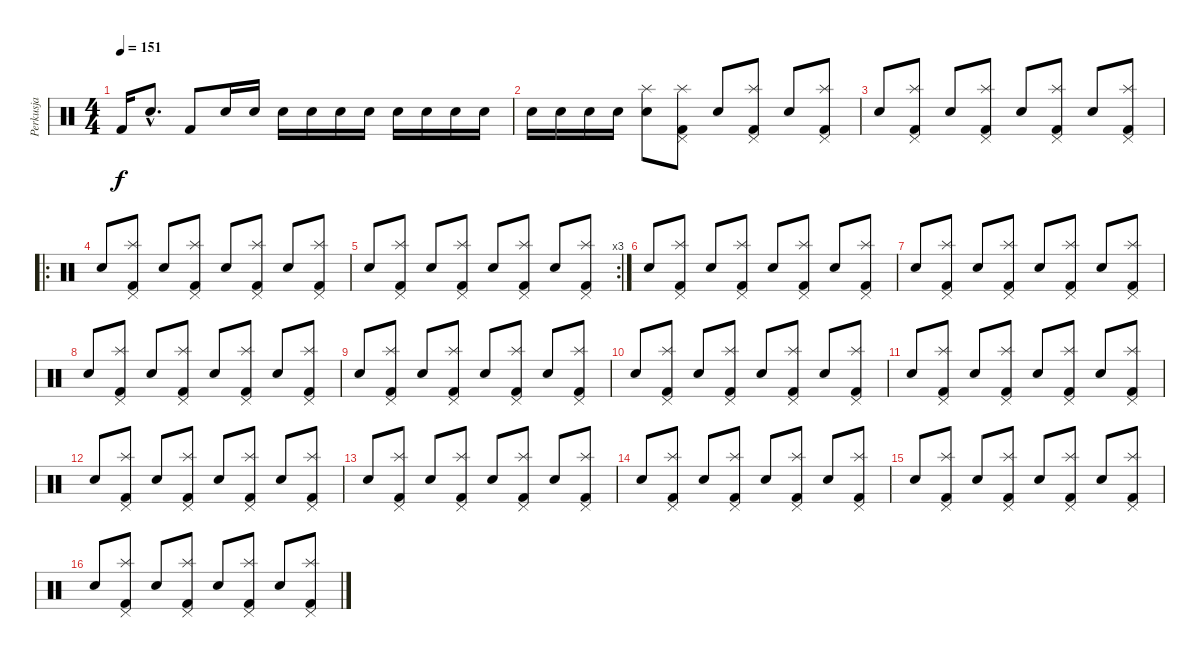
\track ("Perkusja" "Perkusja") {instrument percussion}
\staff {score}
\articulation defaults
\ts (4 4)
\tempo 151
\clef neutral
\ks c "Kick (hit) 2".16{dy f} "Snare (hit) 2"{hac}.8{d} "Kick (hit) 2".8 "Snare (hit) 2".16 "Snare (hit) 2".16 "Snare (hit) 2".16 "Snare (hit) 2".16 "Snare (hit) 2".16 "Snare (hit) 2".16 "Snare (hit) 2".16 "Snare (hit) 2".16 "Snare (hit) 2".16 "Snare (hit) 2".16
|
"Snare (hit) 2".16 "Snare (hit) 2".16 "Snare (hit) 2".16 "Snare (hit) 2".16 ("Splash (hit)" "Snare (hit) 2").8 ("Splash (hit)" "Kick (hit) 2" "Pedal Hi-Hat (hit)").8 "Snare (hit) 2".8 ("Splash (hit)" "Kick (hit) 2" "Pedal Hi-Hat (hit)").8 "Snare (hit) 2".8 ("Splash (hit)" "Kick (hit) 2" "Pedal Hi-Hat (hit)").8 |
"Snare (hit) 2".8 ("Splash (hit)" "Kick (hit) 2" "Pedal Hi-Hat (hit)").8 "Snare (hit) 2".8 ("Splash (hit)" "Kick (hit) 2" "Pedal Hi-Hat (hit)").8 "Snare (hit) 2".8 ("Splash (hit)" "Kick (hit) 2" "Pedal Hi-Hat (hit)").8 "Snare (hit) 2".8 ("Splash (hit)" "Kick (hit) 2" "Pedal Hi-Hat (hit)").8 |
\ro "Snare (hit) 2".8
("Splash (hit)" "Kick (hit) 2" "Pedal Hi-Hat (hit)").8 "Snare (hit) 2".8 ("Splash (hit)" "Kick (hit) 2" "Pedal Hi-Hat (hit)").8 "Snare (hit) 2".8 ("Splash (hit)" "Kick (hit) 2" "Pedal Hi-Hat (hit)").8 "Snare (hit) 2".8 ("Splash (hit)" "Kick (hit) 2" "Pedal Hi-Hat (hit)").8 |
\rc 3 "Snare (hit) 2".8
("Splash (hit)" "Kick (hit) 2" "Pedal Hi-Hat (hit)").8 "Snare (hit) 2".8 ("Splash (hit)" "Kick (hit) 2" "Pedal Hi-Hat (hit)").8 "Snare (hit) 2".8 ("Splash (hit)" "Kick (hit) 2" "Pedal Hi-Hat (hit)").8 "Snare (hit) 2".8 ("Splash (hit)" "Kick (hit) 2" "Pedal Hi-Hat (hit)").8 |
"Snare (hit) 2".8 ("Splash (hit)" "Kick (hit) 2" "Pedal Hi-Hat (hit)").8 "Snare (hit) 2".8 ("Splash (hit)" "Kick (hit) 2" "Pedal Hi-Hat (hit)").8 "Snare (hit) 2".8 ("Splash (hit)" "Kick (hit) 2" "Pedal Hi-Hat (hit)").8 "Snare (hit) 2".8 ("Splash (hit)" "Kick (hit) 2" "Pedal Hi-Hat (hit)").8 |
"Snare (hit) 2".8 ("Splash (hit)" "Kick (hit) 2" "Pedal Hi-Hat (hit)").8 "Snare (hit) 2".8 ("Splash (hit)" "Kick (hit) 2" "Pedal Hi-Hat (hit)").8 "Snare (hit) 2".8 ("Splash (hit)" "Kick (hit) 2" "Pedal Hi-Hat (hit)").8 "Snare (hit) 2".8 ("Splash (hit)" "Kick (hit) 2" "Pedal Hi-Hat (hit)").8 |
"Snare (hit) 2".8 ("Splash (hit)" "Kick (hit) 2" "Pedal Hi-Hat (hit)").8 "Snare (hit) 2".8 ("Splash (hit)" "Kick (hit) 2" "Pedal Hi-Hat (hit)").8 "Snare (hit) 2".8 ("Splash (hit)" "Kick (hit) 2" "Pedal Hi-Hat (hit)").8 "Snare (hit) 2".8 ("Splash (hit)" "Kick (hit) 2" "Pedal Hi-Hat (hit)").8 |
"Snare (hit) 2".8 ("Splash (hit)" "Kick (hit) 2" "Pedal Hi-Hat (hit)").8 "Snare (hit) 2".8 ("Splash (hit)" "Kick (hit) 2" "Pedal Hi-Hat (hit)").8 "Snare (hit) 2".8 ("Splash (hit)" "Kick (hit) 2" "Pedal Hi-Hat (hit)").8 "Snare (hit) 2".8 ("Splash (hit)" "Kick (hit) 2" "Pedal Hi-Hat (hit)").8 |
"Snare (hit) 2".8 ("Splash (hit)" "Kick (hit) 2" "Pedal Hi-Hat (hit)").8 "Snare (hit) 2".8 ("Splash (hit)" "Kick (hit) 2" "Pedal Hi-Hat (hit)").8 "Snare (hit) 2".8 ("Splash (hit)" "Kick (hit) 2" "Pedal Hi-Hat (hit)").8 "Snare (hit) 2".8 ("Splash (hit)" "Kick (hit) 2" "Pedal Hi-Hat (hit)").8 |
"Snare (hit) 2".8 ("Splash (hit)" "Kick (hit) 2" "Pedal Hi-Hat (hit)").8 "Snare (hit) 2".8 ("Splash (hit)" "Kick (hit) 2" "Pedal Hi-Hat (hit)").8 "Snare (hit) 2".8 ("Splash (hit)" "Kick (hit) 2" "Pedal Hi-Hat (hit)").8 "Snare (hit) 2".8 ("Splash (hit)" "Kick (hit) 2" "Pedal Hi-Hat (hit)").8 |
"Snare (hit) 2".8 ("Splash (hit)" "Kick (hit) 2" "Pedal Hi-Hat (hit)").8 "Snare (hit) 2".8 ("Splash (hit)" "Kick (hit) 2" "Pedal Hi-Hat (hit)").8 "Snare (hit) 2".8 ("Splash (hit)" "Kick (hit) 2" "Pedal Hi-Hat (hit)").8 "Snare (hit) 2".8 ("Splash (hit)" "Kick (hit) 2" "Pedal Hi-Hat (hit)").8 |
"Snare (hit) 2".8 ("Splash (hit)" "Kick (hit) 2" "Pedal Hi-Hat (hit)").8 "Snare (hit) 2".8 ("Splash (hit)" "Kick (hit) 2" "Pedal Hi-Hat (hit)").8 "Snare (hit) 2".8 ("Splash (hit)" "Kick (hit) 2" "Pedal Hi-Hat (hit)").8 "Snare (hit) 2".8 ("Splash (hit)" "Kick (hit) 2" "Pedal Hi-Hat (hit)").8 |
"Snare (hit) 2".8 ("Splash (hit)" "Kick (hit) 2" "Pedal Hi-Hat (hit)").8 "Snare (hit) 2".8 ("Splash (hit)" "Kick (hit) 2" "Pedal Hi-Hat (hit)").8 "Snare (hit) 2".8 ("Splash (hit)" "Kick (hit) 2" "Pedal Hi-Hat (hit)").8 "Snare (hit) 2".8 ("Splash (hit)" "Kick (hit) 2" "Pedal Hi-Hat (hit)").8 |
"Snare (hit) 2".8 ("Splash (hit)" "Kick (hit) 2" "Pedal Hi-Hat (hit)").8 "Snare (hit) 2".8 ("Splash (hit)" "Kick (hit) 2" "Pedal Hi-Hat (hit)").8 "Snare (hit) 2".8 ("Splash (hit)" "Kick (hit) 2" "Pedal Hi-Hat (hit)").8 "Snare (hit) 2".8 ("Splash (hit)" "Kick (hit) 2" "Pedal Hi-Hat (hit)").8 |
"Snare (hit) 2".8 ("Splash (hit)" "Kick (hit) 2" "Pedal Hi-Hat (hit)").8 "Snare (hit) 2".8 ("Splash (hit)" "Kick (hit) 2" "Pedal Hi-Hat (hit)").8 "Snare (hit) 2".8 ("Splash (hit)" "Kick (hit) 2" "Pedal Hi-Hat (hit)").8 "Snare (hit) 2".8 ("Splash (hit)" "Kick (hit) 2" "Pedal Hi-Hat (hit)").8
